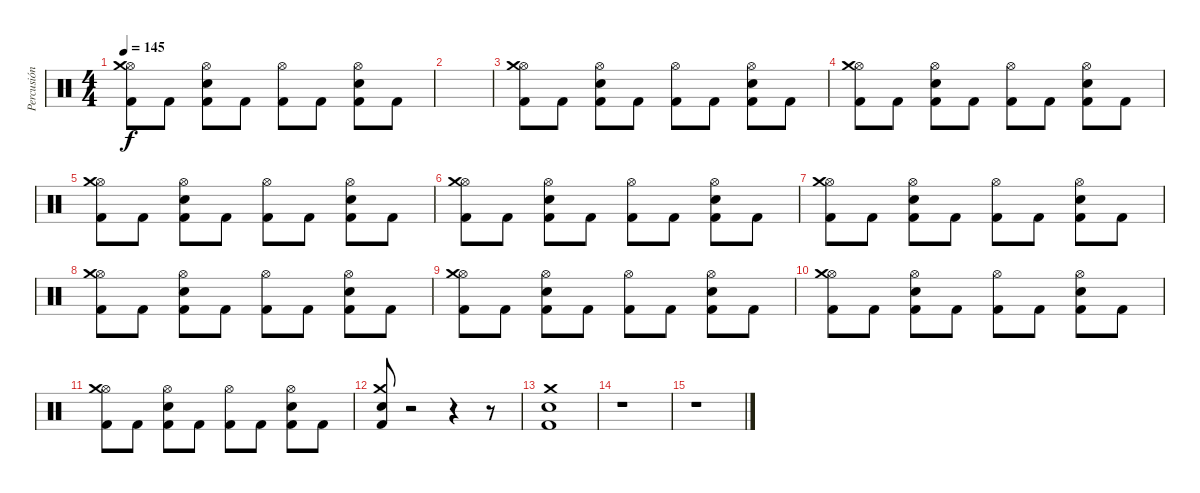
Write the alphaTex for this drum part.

\track ("Percusión" "Percusión") {instrument percussion}
\staff {score}
\articulation defaults
\ts (4 4)
\tempo 145
\clef neutral
\ks c
("Hi-Hat (open)" "Kick (hit) 2" "Crash medium (hit)").8{dy f} "Kick (hit) 2".8 ("Hi-Hat (open)" "Electric Snare (hit)" "Kick (hit) 2").8 "Kick (hit) 2".8 ("Hi-Hat (open)" "Kick (hit) 2").8 "Kick (hit) 2".8 ("Hi-Hat (open)" "Electric Snare (hit)" "Kick (hit) 2").8 "Kick (hit) 2".8 |
|
("Hi-Hat (open)" "Kick (hit) 2" "Crash medium (hit)").8 "Kick (hit) 2".8 ("Hi-Hat (open)" "Electric Snare (hit)" "Kick (hit) 2").8 "Kick (hit) 2".8 ("Hi-Hat (open)" "Kick (hit) 2").8 "Kick (hit) 2".8 ("Hi-Hat (open)" "Electric Snare (hit)" "Kick (hit) 2").8 "Kick (hit) 2".8 |
("Hi-Hat (open)" "Kick (hit) 2" "Crash medium (hit)").8 "Kick (hit) 2".8 ("Hi-Hat (open)" "Electric Snare (hit)" "Kick (hit) 2").8 "Kick (hit) 2".8 ("Hi-Hat (open)" "Kick (hit) 2").8 "Kick (hit) 2".8 ("Hi-Hat (open)" "Electric Snare (hit)" "Kick (hit) 2").8 "Kick (hit) 2".8 |
("Hi-Hat (open)" "Kick (hit) 2" "Crash medium (hit)").8 "Kick (hit) 2".8 ("Hi-Hat (open)" "Electric Snare (hit)" "Kick (hit) 2").8 "Kick (hit) 2".8 ("Hi-Hat (open)" "Kick (hit) 2").8 "Kick (hit) 2".8 ("Hi-Hat (open)" "Electric Snare (hit)" "Kick (hit) 2").8 "Kick (hit) 2".8 |
("Hi-Hat (open)" "Kick (hit) 2" "Crash medium (hit)").8 "Kick (hit) 2".8 ("Hi-Hat (open)" "Electric Snare (hit)" "Kick (hit) 2").8 "Kick (hit) 2".8 ("Hi-Hat (open)" "Kick (hit) 2").8 "Kick (hit) 2".8 ("Hi-Hat (open)" "Electric Snare (hit)" "Kick (hit) 2").8 "Kick (hit) 2".8 |
("Hi-Hat (open)" "Kick (hit) 2" "Crash medium (hit)").8 "Kick (hit) 2".8 ("Hi-Hat (open)" "Electric Snare (hit)" "Kick (hit) 2").8 "Kick (hit) 2".8 ("Hi-Hat (open)" "Kick (hit) 2").8 "Kick (hit) 2".8 ("Hi-Hat (open)" "Electric Snare (hit)" "Kick (hit) 2").8 "Kick (hit) 2".8 |
("Hi-Hat (open)" "Kick (hit) 2" "Crash medium (hit)").8 "Kick (hit) 2".8 ("Hi-Hat (open)" "Electric Snare (hit)" "Kick (hit) 2").8 "Kick (hit) 2".8 ("Hi-Hat (open)" "Kick (hit) 2").8 "Kick (hit) 2".8 ("Hi-Hat (open)" "Electric Snare (hit)" "Kick (hit) 2").8 "Kick (hit) 2".8 |
("Hi-Hat (open)" "Kick (hit) 2" "Crash medium (hit)").8 "Kick (hit) 2".8 ("Hi-Hat (open)" "Electric Snare (hit)" "Kick (hit) 2").8 "Kick (hit) 2".8 ("Hi-Hat (open)" "Kick (hit) 2").8 "Kick (hit) 2".8 ("Hi-Hat (open)" "Electric Snare (hit)" "Kick (hit) 2").8 "Kick (hit) 2".8 |
("Hi-Hat (open)" "Kick (hit) 2" "Crash medium (hit)").8 "Kick (hit) 2".8 ("Hi-Hat (open)" "Electric Snare (hit)" "Kick (hit) 2").8 "Kick (hit) 2".8 ("Hi-Hat (open)" "Kick (hit) 2").8 "Kick (hit) 2".8 ("Hi-Hat (open)" "Electric Snare (hit)" "Kick (hit) 2").8 "Kick (hit) 2".8 |
("Hi-Hat (open)" "Kick (hit) 2" "Crash medium (hit)").8 "Kick (hit) 2".8 ("Hi-Hat (open)" "Electric Snare (hit)" "Kick (hit) 2").8 "Kick (hit) 2".8 ("Hi-Hat (open)" "Kick (hit) 2").8 "Kick (hit) 2".8 ("Hi-Hat (open)" "Electric Snare (hit)" "Kick (hit) 2").8 "Kick (hit) 2".8 |
("Electric Snare (hit)" "Kick (hit) 2" "Crash medium (hit)").8 r.2 r.4 r.8 |
("Kick (hit) 2" "Electric Snare (hit)" "Crash medium (hit)").1 |
r.1 |
r.1
